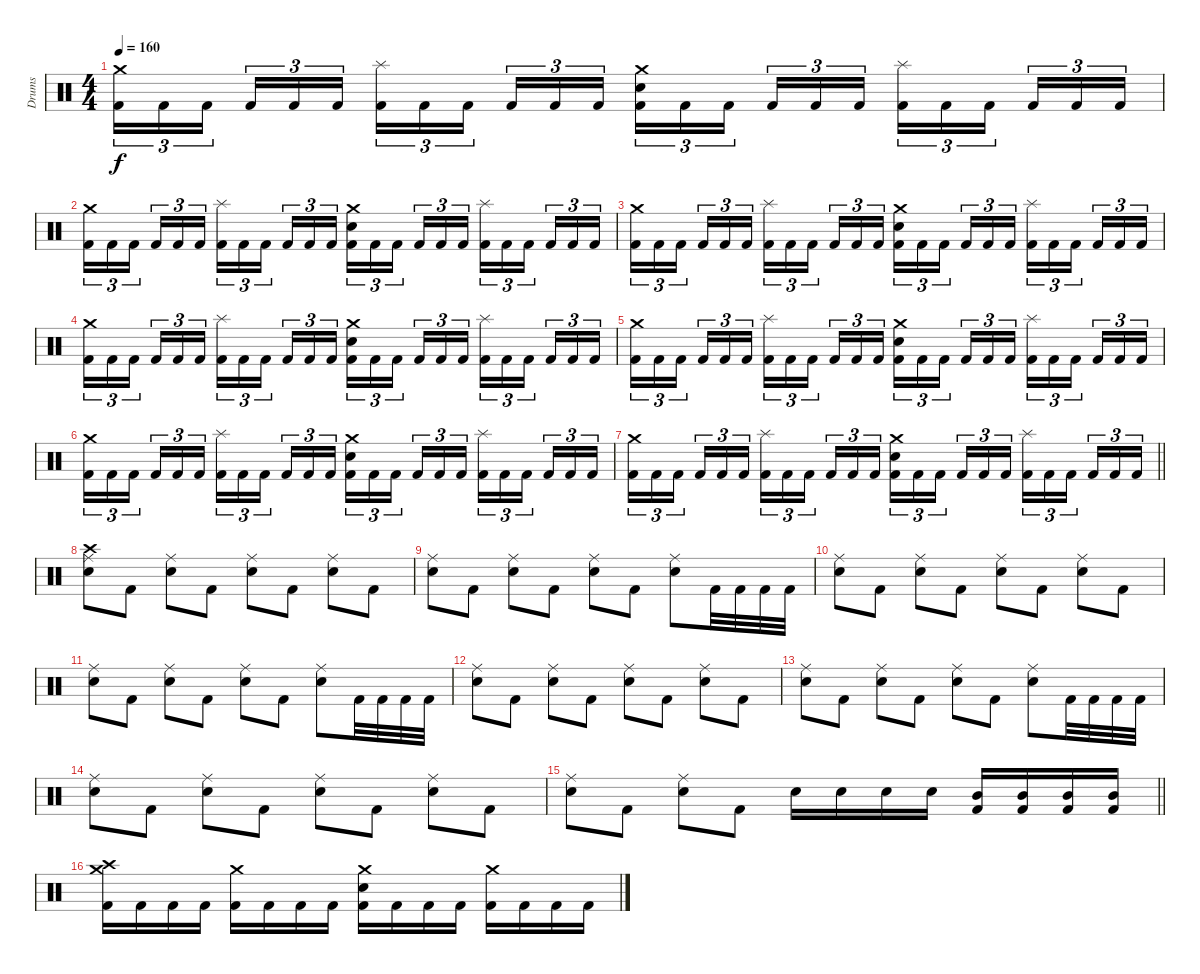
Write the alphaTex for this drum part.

\track ("Drums" "Drums") {instrument percussion}
\staff {score}
\articulation defaults
\ts (4 4)
\tempo 160
\clef neutral
\ks c
("Crash medium (hit)" "Kick (hit) 2").16{tu (3 2) dy f} "Kick (hit) 2".16{tu (3 2)} "Kick (hit) 2".16{tu (3 2) beam splitsecondary} "Kick (hit) 2".16{tu (3 2)} "Kick (hit) 2".16{tu (3 2)} "Kick (hit) 2".16{tu (3 2)} ("Splash (hit)" "Kick (hit) 2").16{tu (3 2)} "Kick (hit) 2".16{tu (3 2)} "Kick (hit) 2".16{tu (3 2) beam splitsecondary} "Kick (hit) 2".16{tu (3 2)} "Kick (hit) 2".16{tu (3 2)} "Kick (hit) 2".16{tu (3 2)} ("Crash medium (hit)" "Snare (hit) 2" "Kick (hit) 2").16{tu (3 2)} "Kick (hit) 2".16{tu (3 2)} "Kick (hit) 2".16{tu (3 2) beam splitsecondary} "Kick (hit) 2".16{tu (3 2)} "Kick (hit) 2".16{tu (3 2)} "Kick (hit) 2".16{tu (3 2)} ("Splash (hit)" "Kick (hit) 2").16{tu (3 2)} "Kick (hit) 2".16{tu (3 2)} "Kick (hit) 2".16{tu (3 2) beam splitsecondary} "Kick (hit) 2".16{tu (3 2)} "Kick (hit) 2".16{tu (3 2)} "Kick (hit) 2".16{tu (3 2)} |
("Crash medium (hit)" "Kick (hit) 2").16{tu (3 2)} "Kick (hit) 2".16{tu (3 2)} "Kick (hit) 2".16{tu (3 2) beam splitsecondary} "Kick (hit) 2".16{tu (3 2)} "Kick (hit) 2".16{tu (3 2)} "Kick (hit) 2".16{tu (3 2)} ("Splash (hit)" "Kick (hit) 2").16{tu (3 2)} "Kick (hit) 2".16{tu (3 2)} "Kick (hit) 2".16{tu (3 2) beam splitsecondary} "Kick (hit) 2".16{tu (3 2)} "Kick (hit) 2".16{tu (3 2)} "Kick (hit) 2".16{tu (3 2)} ("Crash medium (hit)" "Snare (hit) 2" "Kick (hit) 2").16{tu (3 2)} "Kick (hit) 2".16{tu (3 2)} "Kick (hit) 2".16{tu (3 2) beam splitsecondary} "Kick (hit) 2".16{tu (3 2)} "Kick (hit) 2".16{tu (3 2)} "Kick (hit) 2".16{tu (3 2)} ("Splash (hit)" "Kick (hit) 2").16{tu (3 2)} "Kick (hit) 2".16{tu (3 2)} "Kick (hit) 2".16{tu (3 2) beam splitsecondary} "Kick (hit) 2".16{tu (3 2)} "Kick (hit) 2".16{tu (3 2)} "Kick (hit) 2".16{tu (3 2)} |
("Crash medium (hit)" "Kick (hit) 2").16{tu (3 2)} "Kick (hit) 2".16{tu (3 2)} "Kick (hit) 2".16{tu (3 2) beam splitsecondary} "Kick (hit) 2".16{tu (3 2)} "Kick (hit) 2".16{tu (3 2)} "Kick (hit) 2".16{tu (3 2)} ("Splash (hit)" "Kick (hit) 2").16{tu (3 2)} "Kick (hit) 2".16{tu (3 2)} "Kick (hit) 2".16{tu (3 2) beam splitsecondary} "Kick (hit) 2".16{tu (3 2)} "Kick (hit) 2".16{tu (3 2)} "Kick (hit) 2".16{tu (3 2)} ("Crash medium (hit)" "Snare (hit) 2" "Kick (hit) 2").16{tu (3 2)} "Kick (hit) 2".16{tu (3 2)} "Kick (hit) 2".16{tu (3 2) beam splitsecondary} "Kick (hit) 2".16{tu (3 2)} "Kick (hit) 2".16{tu (3 2)} "Kick (hit) 2".16{tu (3 2)} ("Splash (hit)" "Kick (hit) 2").16{tu (3 2)} "Kick (hit) 2".16{tu (3 2)} "Kick (hit) 2".16{tu (3 2) beam splitsecondary} "Kick (hit) 2".16{tu (3 2)} "Kick (hit) 2".16{tu (3 2)} "Kick (hit) 2".16{tu (3 2)} |
("Crash medium (hit)" "Kick (hit) 2").16{tu (3 2)} "Kick (hit) 2".16{tu (3 2)} "Kick (hit) 2".16{tu (3 2) beam splitsecondary} "Kick (hit) 2".16{tu (3 2)} "Kick (hit) 2".16{tu (3 2)} "Kick (hit) 2".16{tu (3 2)} ("Splash (hit)" "Kick (hit) 2").16{tu (3 2)} "Kick (hit) 2".16{tu (3 2)} "Kick (hit) 2".16{tu (3 2) beam splitsecondary} "Kick (hit) 2".16{tu (3 2)} "Kick (hit) 2".16{tu (3 2)} "Kick (hit) 2".16{tu (3 2)} ("Crash medium (hit)" "Snare (hit) 2" "Kick (hit) 2").16{tu (3 2)} "Kick (hit) 2".16{tu (3 2)} "Kick (hit) 2".16{tu (3 2) beam splitsecondary} "Kick (hit) 2".16{tu (3 2)} "Kick (hit) 2".16{tu (3 2)} "Kick (hit) 2".16{tu (3 2)} ("Splash (hit)" "Kick (hit) 2").16{tu (3 2)} "Kick (hit) 2".16{tu (3 2)} "Kick (hit) 2".16{tu (3 2) beam splitsecondary} "Kick (hit) 2".16{tu (3 2)} "Kick (hit) 2".16{tu (3 2)} "Kick (hit) 2".16{tu (3 2)} |
("Crash medium (hit)" "Kick (hit) 2").16{tu (3 2)} "Kick (hit) 2".16{tu (3 2)} "Kick (hit) 2".16{tu (3 2) beam splitsecondary} "Kick (hit) 2".16{tu (3 2)} "Kick (hit) 2".16{tu (3 2)} "Kick (hit) 2".16{tu (3 2)} ("Splash (hit)" "Kick (hit) 2").16{tu (3 2)} "Kick (hit) 2".16{tu (3 2)} "Kick (hit) 2".16{tu (3 2) beam splitsecondary} "Kick (hit) 2".16{tu (3 2)} "Kick (hit) 2".16{tu (3 2)} "Kick (hit) 2".16{tu (3 2)} ("Crash medium (hit)" "Snare (hit) 2" "Kick (hit) 2").16{tu (3 2)} "Kick (hit) 2".16{tu (3 2)} "Kick (hit) 2".16{tu (3 2) beam splitsecondary} "Kick (hit) 2".16{tu (3 2)} "Kick (hit) 2".16{tu (3 2)} "Kick (hit) 2".16{tu (3 2)} ("Splash (hit)" "Kick (hit) 2").16{tu (3 2)} "Kick (hit) 2".16{tu (3 2)} "Kick (hit) 2".16{tu (3 2) beam splitsecondary} "Kick (hit) 2".16{tu (3 2)} "Kick (hit) 2".16{tu (3 2)} "Kick (hit) 2".16{tu (3 2)} |
("Crash medium (hit)" "Kick (hit) 2").16{tu (3 2)} "Kick (hit) 2".16{tu (3 2)} "Kick (hit) 2".16{tu (3 2) beam splitsecondary} "Kick (hit) 2".16{tu (3 2)} "Kick (hit) 2".16{tu (3 2)} "Kick (hit) 2".16{tu (3 2)} ("Splash (hit)" "Kick (hit) 2").16{tu (3 2)} "Kick (hit) 2".16{tu (3 2)} "Kick (hit) 2".16{tu (3 2) beam splitsecondary} "Kick (hit) 2".16{tu (3 2)} "Kick (hit) 2".16{tu (3 2)} "Kick (hit) 2".16{tu (3 2)} ("Crash medium (hit)" "Snare (hit) 2" "Kick (hit) 2").16{tu (3 2)} "Kick (hit) 2".16{tu (3 2)} "Kick (hit) 2".16{tu (3 2) beam splitsecondary} "Kick (hit) 2".16{tu (3 2)} "Kick (hit) 2".16{tu (3 2)} "Kick (hit) 2".16{tu (3 2)} ("Splash (hit)" "Kick (hit) 2").16{tu (3 2)} "Kick (hit) 2".16{tu (3 2)} "Kick (hit) 2".16{tu (3 2) beam splitsecondary} "Kick (hit) 2".16{tu (3 2)} "Kick (hit) 2".16{tu (3 2)} "Kick (hit) 2".16{tu (3 2)} |
\barLineRight lightlight
("Crash medium (hit)" "Kick (hit) 2").16{tu (3 2)} "Kick (hit) 2".16{tu (3 2)} "Kick (hit) 2".16{tu (3 2) beam splitsecondary} "Kick (hit) 2".16{tu (3 2)} "Kick (hit) 2".16{tu (3 2)} "Kick (hit) 2".16{tu (3 2)} ("Splash (hit)" "Kick (hit) 2").16{tu (3 2)} "Kick (hit) 2".16{tu (3 2)} "Kick (hit) 2".16{tu (3 2) beam splitsecondary} "Kick (hit) 2".16{tu (3 2)} "Kick (hit) 2".16{tu (3 2)} "Kick (hit) 2".16{tu (3 2)} ("Crash medium (hit)" "Snare (hit) 2" "Kick (hit) 2").16{tu (3 2)} "Kick (hit) 2".16{tu (3 2)} "Kick (hit) 2".16{tu (3 2) beam splitsecondary} "Kick (hit) 2".16{tu (3 2)} "Kick (hit) 2".16{tu (3 2)} "Kick (hit) 2".16{tu (3 2)} ("Splash (hit)" "Kick (hit) 2").16{tu (3 2)} "Kick (hit) 2".16{tu (3 2)} "Kick (hit) 2".16{tu (3 2) beam splitsecondary} "Kick (hit) 2".16{tu (3 2)} "Kick (hit) 2".16{tu (3 2)} "Kick (hit) 2".16{tu (3 2)} |
\section ("" "")
("Ride (middle)" "Crash high (hit)" "Snare (hit) 2").8 "Kick (hit) 2".8 ("Ride (middle)" "Snare (hit) 2").8 "Kick (hit) 2".8 ("Ride (middle)" "Snare (hit) 2").8 "Kick (hit) 2".8 ("Ride (middle)" "Snare (hit) 2").8 "Kick (hit) 2".8 |
("Ride (middle)" "Snare (hit) 2").8 "Kick (hit) 2".8 ("Ride (middle)" "Snare (hit) 2").8 "Kick (hit) 2".8 ("Ride (middle)" "Snare (hit) 2").8 "Kick (hit) 2".8 ("Ride (middle)" "Snare (hit) 2").8 "Kick (hit) 2".32 "Kick (hit) 2".32 "Kick (hit) 2".32 "Kick (hit) 2".32 |
("Ride (middle)" "Snare (hit) 2").8 "Kick (hit) 2".8 ("Ride (middle)" "Snare (hit) 2").8 "Kick (hit) 2".8 ("Ride (middle)" "Snare (hit) 2").8 "Kick (hit) 2".8 ("Ride (middle)" "Snare (hit) 2").8 "Kick (hit) 2".8 |
("Ride (middle)" "Snare (hit) 2").8 "Kick (hit) 2".8 ("Ride (middle)" "Snare (hit) 2").8 "Kick (hit) 2".8 ("Ride (middle)" "Snare (hit) 2").8 "Kick (hit) 2".8 ("Ride (middle)" "Snare (hit) 2").8 "Kick (hit) 2".32 "Kick (hit) 2".32 "Kick (hit) 2".32 "Kick (hit) 2".32 |
("Ride (middle)" "Snare (hit) 2").8 "Kick (hit) 2".8 ("Ride (middle)" "Snare (hit) 2").8 "Kick (hit) 2".8 ("Ride (middle)" "Snare (hit) 2").8 "Kick (hit) 2".8 ("Ride (middle)" "Snare (hit) 2").8 "Kick (hit) 2".8 |
("Ride (middle)" "Snare (hit) 2").8 "Kick (hit) 2".8 ("Ride (middle)" "Snare (hit) 2").8 "Kick (hit) 2".8 ("Ride (middle)" "Snare (hit) 2").8 "Kick (hit) 2".8 ("Ride (middle)" "Snare (hit) 2").8 "Kick (hit) 2".32 "Kick (hit) 2".32 "Kick (hit) 2".32 "Kick (hit) 2".32 |
("Ride (middle)" "Snare (hit) 2").8 "Kick (hit) 2".8 ("Ride (middle)" "Snare (hit) 2").8 "Kick (hit) 2".8 ("Ride (middle)" "Snare (hit) 2").8 "Kick (hit) 2".8 ("Ride (middle)" "Snare (hit) 2").8 "Kick (hit) 2".8 |
\barLineRight lightlight
("Ride (middle)" "Snare (hit) 2").8 "Kick (hit) 2".8 ("Ride (middle)" "Snare (hit) 2").8 "Kick (hit) 2".8 "Snare (hit) 2".16 "Snare (hit) 2".16 "Snare (hit) 2".16 "Snare (hit) 2".16 ("Mid Tom (hit)" "Kick (hit) 2").16 ("Mid Tom (hit)" "Kick (hit) 2").16 ("Mid Tom (hit)" "Kick (hit) 2").16 ("Mid Tom (hit)" "Kick (hit) 2").16 |
\section ("" "")
("Crash medium (hit)" "Crash high (hit)" "Kick (hit) 2").16 "Kick (hit) 2".16 "Kick (hit) 2".16 "Kick (hit) 2".16 ("Crash medium (hit)" "Kick (hit) 2").16 "Kick (hit) 2".16 "Kick (hit) 2".16 "Kick (hit) 2".16 ("Crash medium (hit)" "Snare (hit) 2" "Kick (hit) 2").16 "Kick (hit) 2".16 "Kick (hit) 2".16 "Kick (hit) 2".16 ("Crash medium (hit)" "Kick (hit) 2").16 "Kick (hit) 2".16 "Kick (hit) 2".16 "Kick (hit) 2".16
